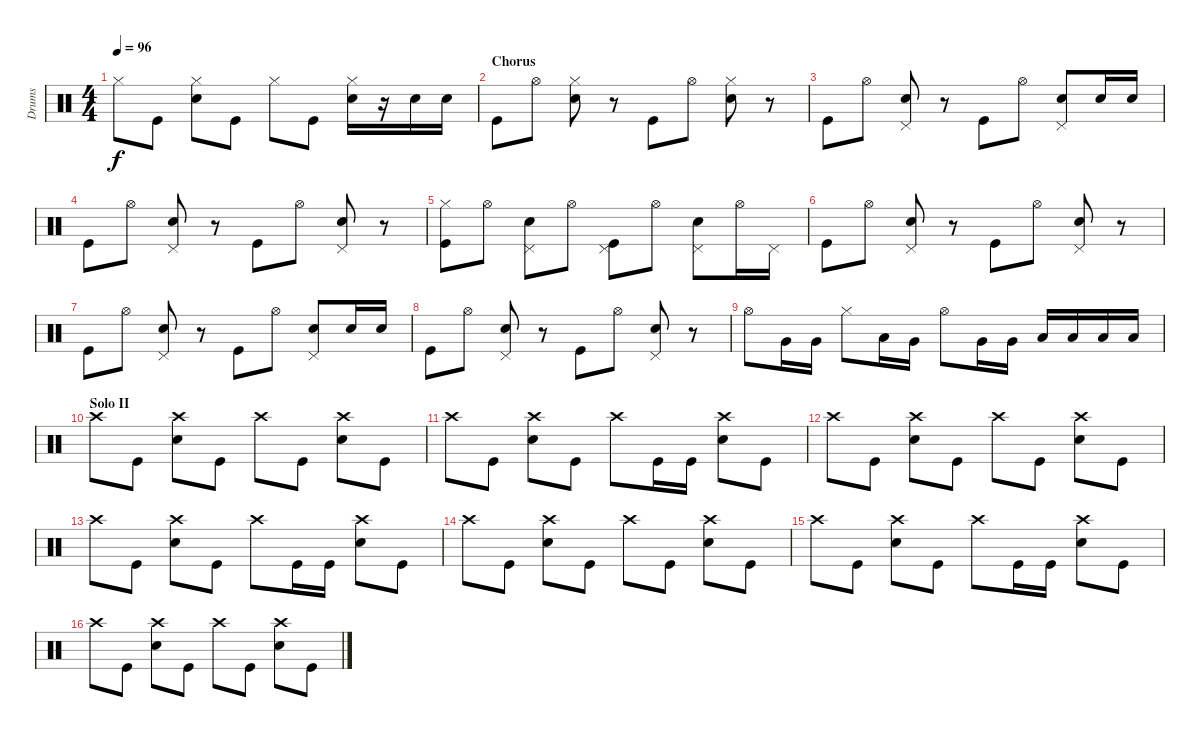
\track ("Drums" "Drums") {instrument percussion}
\staff {score}
\articulation defaults
\ts (4 4)
\tempo 96
\clef neutral
\ks c "Hi-Hat (closed)".8{dy f} "Kick (hit)".8
("Snare (hit) 2" "Hi-Hat (closed)").8 "Kick (hit)".8 "Hi-Hat (closed)".8 "Kick (hit)".8 ("Snare (hit) 2" "Hi-Hat (closed)").16 r.16 "Snare (hit) 2".16 "Snare (hit) 2".16 |
\section ("" "Chorus")
"Kick (hit)".8 "Hi-Hat (open)".8 ("Hi-Hat (closed)" "Snare (hit) 2").8 r.8 "Kick (hit)".8 "Hi-Hat (open)".8 ("Hi-Hat (closed)" "Snare (hit) 2").8 r.8 |
"Kick (hit)".8 "Hi-Hat (open)".8 ("Pedal Hi-Hat (hit)" "Snare (hit) 2").8 r.8 "Kick (hit)".8 "Hi-Hat (open)".8 ("Pedal Hi-Hat (hit)" "Snare (hit) 2").8 "Snare (hit) 2".16 "Snare (hit) 2".16 |
"Kick (hit)".8 "Hi-Hat (open)".8 ("Pedal Hi-Hat (hit)" "Snare (hit) 2").8 r.8 "Kick (hit)".8 "Hi-Hat (open)".8 ("Pedal Hi-Hat (hit)" "Snare (hit) 2").8 r.8 |
("Hi-Hat (closed)" "Kick (hit)").8 "Hi-Hat (open)".8 ("Pedal Hi-Hat (hit)" "Snare (hit) 2").8 "Hi-Hat (open)".8 ("Pedal Hi-Hat (hit)" "Kick (hit)").8 "Hi-Hat (open)".8 ("Pedal Hi-Hat (hit)" "Snare (hit) 2").8 "Hi-Hat (open)".16 "Pedal Hi-Hat (hit)".16 |
"Kick (hit)".8 "Hi-Hat (open)".8 ("Pedal Hi-Hat (hit)" "Snare (hit) 2").8 r.8 "Kick (hit)".8 "Hi-Hat (open)".8 ("Pedal Hi-Hat (hit)" "Snare (hit) 2").8 r.8 |
"Kick (hit)".8 "Hi-Hat (open)".8 ("Pedal Hi-Hat (hit)" "Snare (hit) 2").8 r.8 "Kick (hit)".8 "Hi-Hat (open)".8 ("Pedal Hi-Hat (hit)" "Snare (hit) 2").8 "Snare (hit) 2".16 "Snare (hit) 2".16 |
"Kick (hit)".8 "Hi-Hat (open)".8 ("Pedal Hi-Hat (hit)" "Snare (hit) 2").8 r.8 "Kick (hit)".8 "Hi-Hat (open)".8 ("Pedal Hi-Hat (hit)" "Snare (hit) 2").8 r.8 |
"Hi-Hat (open)".8 "Very Low Tom (hit)".16 "Very Low Tom (hit)".16 "Hi-Hat (closed)".8 "Low Tom (hit)".16 "Very Low Tom (hit)".16 "Hi-Hat (open)".8 "Very Low Tom (hit)".16 "Very Low Tom (hit)".16 "Low Tom (hit)".16 "Low Floor Tom (hit)".16 "Low Floor Tom (hit)".16 "Low Floor Tom (hit)".16 |
\section ("" "Solo II")
"Crash high (hit)".8 "Kick (hit)".8 ("Snare (hit) 2" "Crash high (hit)").8 "Kick (hit)".8 "Crash high (hit)".8 "Kick (hit)".8 ("Snare (hit) 2" "Crash high (hit)").8 "Kick (hit)".8 |
"Crash high (hit)".8 "Kick (hit)".8 ("Snare (hit) 2" "Crash high (hit)").8 "Kick (hit)".8 "Crash high (hit)".8 "Kick (hit)".16 "Kick (hit)".16 ("Snare (hit) 2" "Crash high (hit)").8 "Kick (hit)".8 |
"Crash high (hit)".8 "Kick (hit)".8 ("Snare (hit) 2" "Crash high (hit)").8 "Kick (hit)".8 "Crash high (hit)".8 "Kick (hit)".8 ("Snare (hit) 2" "Crash high (hit)").8 "Kick (hit)".8 |
"Crash high (hit)".8 "Kick (hit)".8 ("Snare (hit) 2" "Crash high (hit)").8 "Kick (hit)".8 "Crash high (hit)".8 "Kick (hit)".16 "Kick (hit)".16 ("Snare (hit) 2" "Crash high (hit)").8 "Kick (hit)".8 |
"Crash high (hit)".8 "Kick (hit)".8 ("Snare (hit) 2" "Crash high (hit)").8 "Kick (hit)".8 "Crash high (hit)".8 "Kick (hit)".8 ("Snare (hit) 2" "Crash high (hit)").8 "Kick (hit)".8 |
"Crash high (hit)".8 "Kick (hit)".8 ("Snare (hit) 2" "Crash high (hit)").8 "Kick (hit)".8 "Crash high (hit)".8 "Kick (hit)".16 "Kick (hit)".16 ("Snare (hit) 2" "Crash high (hit)").8 "Kick (hit)".8 |
"Crash high (hit)".8 "Kick (hit)".8 ("Snare (hit) 2" "Crash high (hit)").8 "Kick (hit)".8 "Crash high (hit)".8 "Kick (hit)".8 ("Snare (hit) 2" "Crash high (hit)").8 "Kick (hit)".8
